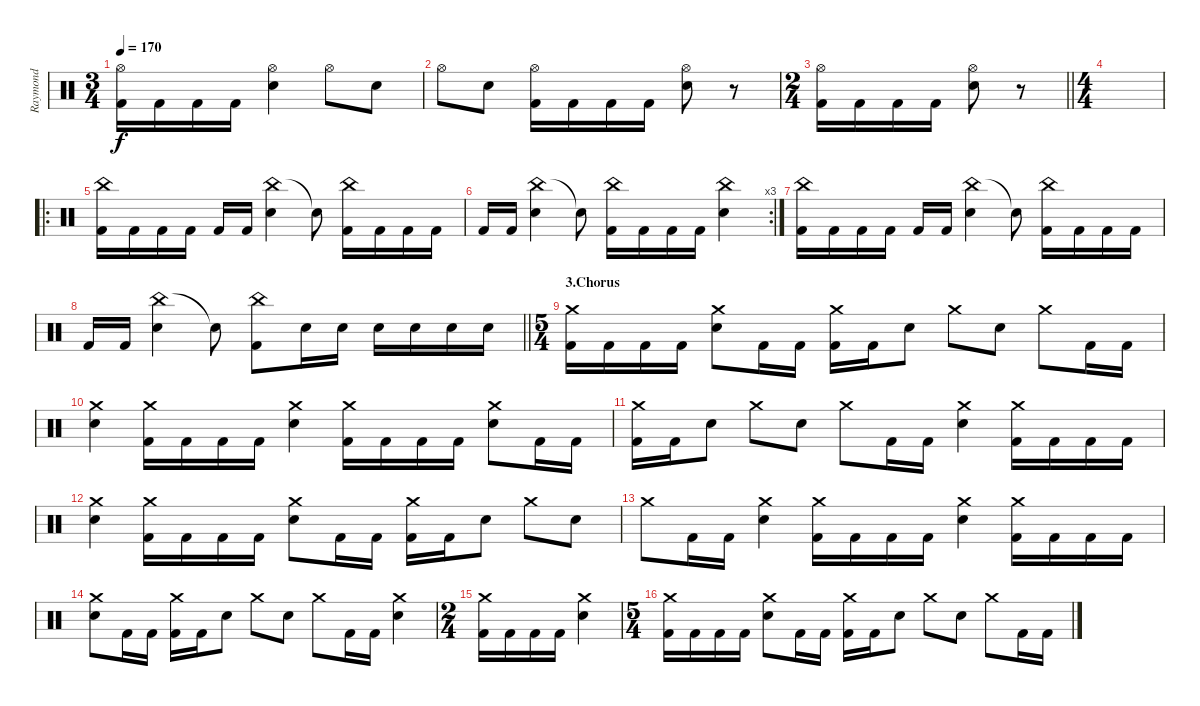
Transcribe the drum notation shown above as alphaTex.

\track ("Raymond" "Raymond") {instrument percussion}
\staff {score}
\articulation defaults
\ts (3 4)
\tempo 170
\clef neutral
\ks c
("Hi-Hat (open)" "Kick (hit) 2").16{dy f} "Kick (hit) 2".16 "Kick (hit) 2".16 "Kick (hit) 2".16 ("Hi-Hat (open)" "Electric Snare (hit)").4 "Hi-Hat (open)".8 "Electric Snare (hit)".8 |
"Hi-Hat (open)".8 "Electric Snare (hit)".8 ("Hi-Hat (open)" "Kick (hit) 2").16 "Kick (hit) 2".16 "Kick (hit) 2".16 "Kick (hit) 2".16 ("Hi-Hat (open)" "Electric Snare (hit)").8 r.8 |
\ts (2 4)
\barLineRight lightlight
("Hi-Hat (open)" "Kick (hit) 2").16 "Kick (hit) 2".16 "Kick (hit) 2".16 "Kick (hit) 2".16 ("Hi-Hat (open)" "Electric Snare (hit)").8 r.8 |
\ts (4 4)
\section ("" "")
|
\ro
("China (hit)" "Kick (hit) 2").16 "Kick (hit) 2".16 "Kick (hit) 2".16 "Kick (hit) 2".16 "Kick (hit) 2".16 "Kick (hit) 2".16 ("China (hit)" "Electric Snare (hit)").4 "Snare (hit)"{t}.8 ("China (hit)" "Kick (hit) 2").16 "Kick (hit) 2".16 "Kick (hit) 2".16 "Kick (hit) 2".16 |
\rc 3 "Kick (hit) 2".16 "Kick (hit) 2".16
("China (hit)" "Electric Snare (hit)").4 "Snare (hit)"{t}.8 ("China (hit)" "Kick (hit) 2").16 "Kick (hit) 2".16 "Kick (hit) 2".16 "Kick (hit) 2".16 ("China (hit)" "Electric Snare (hit)").4 |
("China (hit)" "Kick (hit) 2").16 "Kick (hit) 2".16 "Kick (hit) 2".16 "Kick (hit) 2".16 "Kick (hit) 2".16 "Kick (hit) 2".16 ("China (hit)" "Electric Snare (hit)").4 "Snare (hit)"{t}.8 ("China (hit)" "Kick (hit) 2").16 "Kick (hit) 2".16 "Kick (hit) 2".16 "Kick (hit) 2".16 |
\barLineRight lightlight "Kick (hit) 2".16 "Kick (hit) 2".16
("China (hit)" "Electric Snare (hit)").4 "Snare (hit)"{t}.8 ("China (hit)" "Kick (hit) 2").8 "Electric Snare (hit)".16 "Electric Snare (hit)".16 "Electric Snare (hit)".16 "Electric Snare (hit)".16 "Electric Snare (hit)".16 "Electric Snare (hit)".16 |
\ts (5 4)
\section ("" "3.Chorus")
("Crash medium (hit)" "Kick (hit) 2").16 "Kick (hit) 2".16 "Kick (hit) 2".16 "Kick (hit) 2".16 ("Crash medium (hit)" "Electric Snare (hit)").8 "Kick (hit) 2".16 "Kick (hit) 2".16 ("Crash medium (hit)" "Kick (hit) 2").16 "Kick (hit) 2".16 "Electric Snare (hit)".8 "Crash medium (hit)".8 "Electric Snare (hit)".8 "Crash medium (hit)".8 "Kick (hit) 2".16 "Kick (hit) 2".16 |
("Crash medium (hit)" "Electric Snare (hit)").4 ("Crash medium (hit)" "Kick (hit) 2").16 "Kick (hit) 2".16 "Kick (hit) 2".16 "Kick (hit) 2".16 ("Crash medium (hit)" "Electric Snare (hit)").4 ("Crash medium (hit)" "Kick (hit) 2").16 "Kick (hit) 2".16 "Kick (hit) 2".16 "Kick (hit) 2".16 ("Crash medium (hit)" "Electric Snare (hit)").8 "Kick (hit) 2".16 "Kick (hit) 2".16 |
("Crash medium (hit)" "Kick (hit) 2").16 "Kick (hit) 2".16 "Electric Snare (hit)".8 "Crash medium (hit)".8 "Electric Snare (hit)".8 "Crash medium (hit)".8 "Kick (hit) 2".16 "Kick (hit) 2".16 ("Crash medium (hit)" "Electric Snare (hit)").4 ("Crash medium (hit)" "Kick (hit) 2").16 "Kick (hit) 2".16 "Kick (hit) 2".16 "Kick (hit) 2".16 |
("Crash medium (hit)" "Electric Snare (hit)").4 ("Crash medium (hit)" "Kick (hit) 2").16 "Kick (hit) 2".16 "Kick (hit) 2".16 "Kick (hit) 2".16 ("Crash medium (hit)" "Electric Snare (hit)").8 "Kick (hit) 2".16 "Kick (hit) 2".16 ("Crash medium (hit)" "Kick (hit) 2").16 "Kick (hit) 2".16 "Electric Snare (hit)".8 "Crash medium (hit)".8 "Electric Snare (hit)".8 |
"Crash medium (hit)".8 "Kick (hit) 2".16 "Kick (hit) 2".16 ("Crash medium (hit)" "Electric Snare (hit)").4 ("Crash medium (hit)" "Kick (hit) 2").16 "Kick (hit) 2".16 "Kick (hit) 2".16 "Kick (hit) 2".16 ("Crash medium (hit)" "Electric Snare (hit)").4 ("Crash medium (hit)" "Kick (hit) 2").16 "Kick (hit) 2".16 "Kick (hit) 2".16 "Kick (hit) 2".16 |
("Crash medium (hit)" "Electric Snare (hit)").8 "Kick (hit) 2".16 "Kick (hit) 2".16 ("Crash medium (hit)" "Kick (hit) 2").16 "Kick (hit) 2".16 "Electric Snare (hit)".8 "Crash medium (hit)".8 "Electric Snare (hit)".8 "Crash medium (hit)".8 "Kick (hit) 2".16 "Kick (hit) 2".16 ("Crash medium (hit)" "Electric Snare (hit)").4 |
\ts (2 4)
("Crash medium (hit)" "Kick (hit) 2").16 "Kick (hit) 2".16 "Kick (hit) 2".16 "Kick (hit) 2".16 ("Crash medium (hit)" "Electric Snare (hit)").4 |
\ts (5 4)
("Crash medium (hit)" "Kick (hit) 2").16 "Kick (hit) 2".16 "Kick (hit) 2".16 "Kick (hit) 2".16 ("Crash medium (hit)" "Electric Snare (hit)").8 "Kick (hit) 2".16 "Kick (hit) 2".16 ("Crash medium (hit)" "Kick (hit) 2").16 "Kick (hit) 2".16 "Electric Snare (hit)".8 "Crash medium (hit)".8 "Electric Snare (hit)".8 "Crash medium (hit)".8 "Kick (hit) 2".16 "Kick (hit) 2".16
